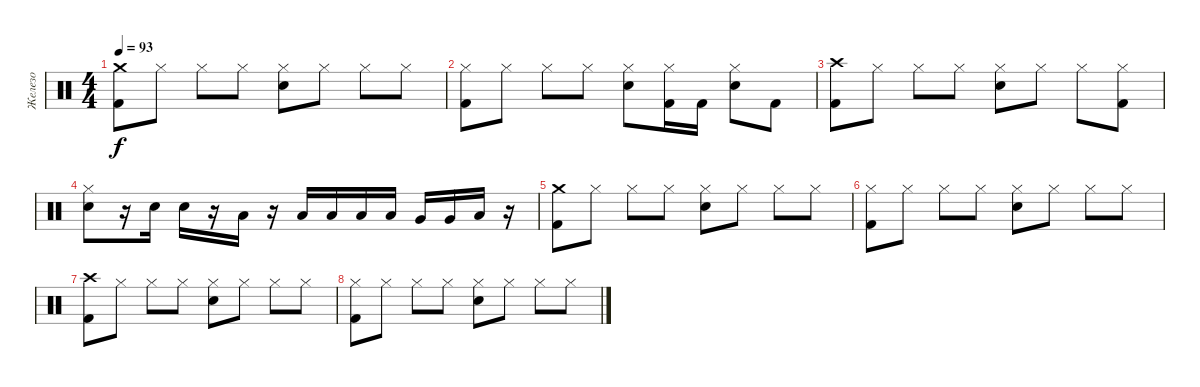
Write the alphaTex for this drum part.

\track ("Железо" "Железо") {instrument percussion}
\staff {score}
\articulation defaults
\ts (4 4)
\tempo 93
\clef neutral
\ks c
("Crash medium (hit)" "Kick (hit) 2").8{dy f volume 0} "Hi-Hat (closed)".8 "Hi-Hat (closed)".8 "Hi-Hat (closed)".8 ("Hi-Hat (closed)" "Electric Snare (hit)").8 "Hi-Hat (closed)".8 "Hi-Hat (closed)".8 "Hi-Hat (closed)".8 |
("Hi-Hat (closed)" "Kick (hit) 2").8 "Hi-Hat (closed)".8 "Hi-Hat (closed)".8 "Hi-Hat (closed)".8 ("Hi-Hat (closed)" "Electric Snare (hit)").8 ("Hi-Hat (closed)" "Kick (hit) 2").16 "Kick (hit) 2".16 ("Hi-Hat (closed)" "Electric Snare (hit)").8 "Kick (hit) 2".8 |
("Crash high (hit)" "Kick (hit) 2").8 "Hi-Hat (closed)".8 "Hi-Hat (closed)".8 "Hi-Hat (closed)".8 ("Hi-Hat (closed)" "Electric Snare (hit)").8 "Hi-Hat (closed)".8 "Hi-Hat (closed)".8 ("Hi-Hat (closed)" "Kick (hit) 2").8 |
("Hi-Hat (closed)" "Electric Snare (hit)").8 r.16 "Electric Snare (hit)".16 "Electric Snare (hit)".16 r.16 "Low Floor Tom (hit)".16 r.16 "Low Tom (hit)".16 "Low Tom (hit)".16 "Low Tom (hit)".16 "Low Tom (hit)".16 "Very Low Tom (hit)".16 "Very Low Tom (hit)".16 "Low Floor Tom (hit)".16 r.16 |
("Crash medium (hit)" "Kick (hit) 2").8 "Hi-Hat (closed)".8 "Hi-Hat (closed)".8 "Hi-Hat (closed)".8 ("Hi-Hat (closed)" "Electric Snare (hit)").8 "Hi-Hat (closed)".8 "Hi-Hat (closed)".8 "Hi-Hat (closed)".8 |
("Hi-Hat (closed)" "Kick (hit) 2").8 "Hi-Hat (closed)".8 "Hi-Hat (closed)".8 "Hi-Hat (closed)".8 ("Hi-Hat (closed)" "Electric Snare (hit)").8 "Hi-Hat (closed)".8 "Hi-Hat (closed)".8 "Hi-Hat (closed)".8 |
("Crash high (hit)" "Kick (hit) 2").8 "Hi-Hat (closed)".8 "Hi-Hat (closed)".8 "Hi-Hat (closed)".8 ("Hi-Hat (closed)" "Electric Snare (hit)").8 "Hi-Hat (closed)".8 "Hi-Hat (closed)".8 "Hi-Hat (closed)".8 |
("Hi-Hat (closed)" "Kick (hit) 2").8 "Hi-Hat (closed)".8 "Hi-Hat (closed)".8 "Hi-Hat (closed)".8 ("Hi-Hat (closed)" "Electric Snare (hit)").8 "Hi-Hat (closed)".8 "Hi-Hat (closed)".8 "Hi-Hat (closed)".8
